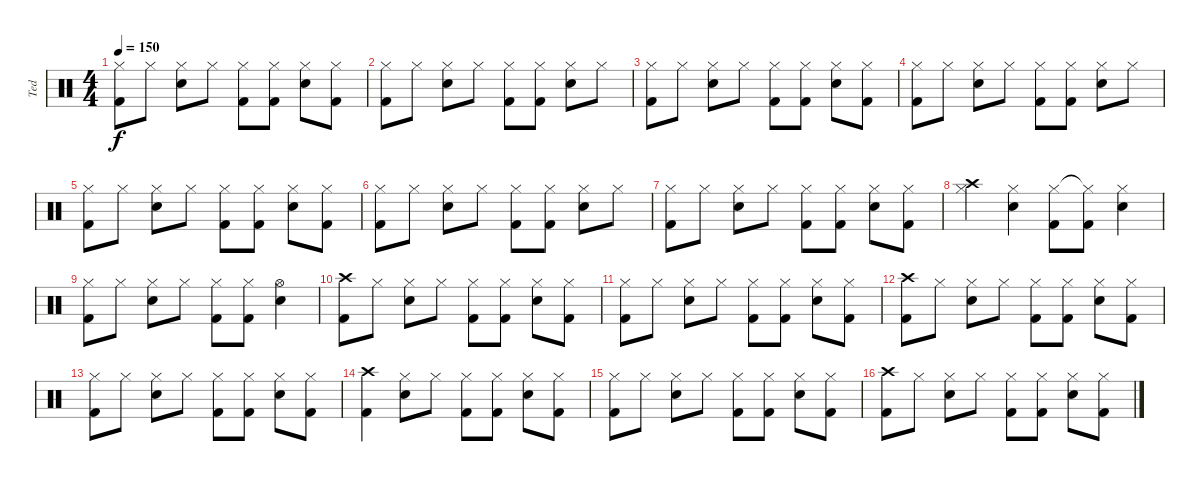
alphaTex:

\track ("Ted" "Ted") {instrument percussion}
\staff {score}
\articulation defaults
\ts (4 4)
\tempo 150
\clef neutral
\ks c
("Hi-Hat (closed)" "Kick (hit) 2").8{dy f} "Hi-Hat (closed)".8 ("Hi-Hat (closed)" "Electric Snare (hit)").8 "Hi-Hat (closed)".8 ("Hi-Hat (closed)" "Kick (hit) 2").8 ("Hi-Hat (closed)" "Kick (hit) 2").8 ("Hi-Hat (closed)" "Electric Snare (hit)").8 ("Hi-Hat (closed)" "Kick (hit) 2").8 |
("Hi-Hat (closed)" "Kick (hit) 2").8 "Hi-Hat (closed)".8 ("Hi-Hat (closed)" "Electric Snare (hit)").8 "Hi-Hat (closed)".8 ("Hi-Hat (closed)" "Kick (hit) 2").8 ("Hi-Hat (closed)" "Kick (hit) 2").8 ("Hi-Hat (closed)" "Electric Snare (hit)").8 "Hi-Hat (closed)".8 |
("Hi-Hat (closed)" "Kick (hit) 2").8 "Hi-Hat (closed)".8 ("Hi-Hat (closed)" "Electric Snare (hit)").8 "Hi-Hat (closed)".8 ("Hi-Hat (closed)" "Kick (hit) 2").8 ("Hi-Hat (closed)" "Kick (hit) 2").8 ("Hi-Hat (closed)" "Electric Snare (hit)").8 ("Hi-Hat (closed)" "Kick (hit) 2").8 |
("Hi-Hat (closed)" "Kick (hit) 2").8 "Hi-Hat (closed)".8 ("Hi-Hat (closed)" "Electric Snare (hit)").8 "Hi-Hat (closed)".8 ("Hi-Hat (closed)" "Kick (hit) 2").8 ("Hi-Hat (closed)" "Kick (hit) 2").8 ("Hi-Hat (closed)" "Electric Snare (hit)").8 "Hi-Hat (closed)".8 |
("Hi-Hat (closed)" "Kick (hit) 2").8 "Hi-Hat (closed)".8 ("Hi-Hat (closed)" "Electric Snare (hit)").8 "Hi-Hat (closed)".8 ("Hi-Hat (closed)" "Kick (hit) 2").8 ("Hi-Hat (closed)" "Kick (hit) 2").8 ("Hi-Hat (closed)" "Electric Snare (hit)").8 ("Hi-Hat (closed)" "Kick (hit) 2").8 |
("Hi-Hat (closed)" "Kick (hit) 2").8 "Hi-Hat (closed)".8 ("Hi-Hat (closed)" "Electric Snare (hit)").8 "Hi-Hat (closed)".8 ("Hi-Hat (closed)" "Kick (hit) 2").8 ("Hi-Hat (closed)" "Kick (hit) 2").8 ("Hi-Hat (closed)" "Electric Snare (hit)").8 "Hi-Hat (closed)".8 |
("Hi-Hat (closed)" "Kick (hit) 2").8 "Hi-Hat (closed)".8 ("Hi-Hat (closed)" "Electric Snare (hit)").8 "Hi-Hat (closed)".8 ("Hi-Hat (closed)" "Kick (hit) 2").8 ("Hi-Hat (closed)" "Kick (hit) 2").8 ("Hi-Hat (closed)" "Electric Snare (hit)").8 ("Hi-Hat (closed)" "Kick (hit) 2").8 |
("Crash high (hit)" "Hi-Hat (closed)").4 ("Hi-Hat (closed)" "Electric Snare (hit)").4 ("Hi-Hat (closed)" "Kick (hit) 2").8 ("Hi-Hat (closed)"{t} "Kick (hit) 2").8 ("Hi-Hat (closed)" "Electric Snare (hit)").4 |
("Hi-Hat (closed)" "Kick (hit) 2").8 "Hi-Hat (closed)".8 ("Hi-Hat (closed)" "Electric Snare (hit)").8 "Hi-Hat (closed)".8 ("Hi-Hat (closed)" "Kick (hit) 2").8 ("Hi-Hat (closed)" "Kick (hit) 2").8 ("Hi-Hat (open)" "Electric Snare (hit)").4 |
("Crash high (hit)" "Kick (hit) 2").8 "Hi-Hat (closed)".8 ("Hi-Hat (closed)" "Electric Snare (hit)").8 "Hi-Hat (closed)".8 ("Hi-Hat (closed)" "Kick (hit) 2").8 ("Hi-Hat (closed)" "Kick (hit) 2").8 ("Hi-Hat (closed)" "Electric Snare (hit)").8 ("Hi-Hat (closed)" "Kick (hit) 2").8 |
("Hi-Hat (closed)" "Kick (hit) 2").8 "Hi-Hat (closed)".8 ("Hi-Hat (closed)" "Electric Snare (hit)").8 "Hi-Hat (closed)".8 ("Hi-Hat (closed)" "Kick (hit) 2").8 ("Hi-Hat (closed)" "Kick (hit) 2").8 ("Hi-Hat (closed)" "Electric Snare (hit)").8 ("Hi-Hat (closed)" "Kick (hit) 2").8 |
("Crash high (hit)" "Kick (hit) 2").8 "Hi-Hat (closed)".8 ("Hi-Hat (closed)" "Electric Snare (hit)").8 "Hi-Hat (closed)".8 ("Hi-Hat (closed)" "Kick (hit) 2").8 ("Hi-Hat (closed)" "Kick (hit) 2").8 ("Hi-Hat (closed)" "Electric Snare (hit)").8 ("Hi-Hat (closed)" "Kick (hit) 2").8 |
("Hi-Hat (closed)" "Kick (hit) 2").8 "Hi-Hat (closed)".8 ("Hi-Hat (closed)" "Electric Snare (hit)").8 "Hi-Hat (closed)".8 ("Hi-Hat (closed)" "Kick (hit) 2").8 ("Hi-Hat (closed)" "Kick (hit) 2").8 ("Hi-Hat (closed)" "Electric Snare (hit)").8 ("Hi-Hat (closed)" "Kick (hit) 2").8 |
("Crash high (hit)" "Kick (hit) 2").4 ("Hi-Hat (closed)" "Electric Snare (hit)").8 "Hi-Hat (closed)".8 ("Hi-Hat (closed)" "Kick (hit) 2").8 ("Hi-Hat (closed)" "Kick (hit) 2").8 ("Hi-Hat (closed)" "Electric Snare (hit)").8 ("Hi-Hat (closed)" "Kick (hit) 2").8 |
("Hi-Hat (closed)" "Kick (hit) 2").8 "Hi-Hat (closed)".8 ("Hi-Hat (closed)" "Electric Snare (hit)").8 "Hi-Hat (closed)".8 ("Hi-Hat (closed)" "Kick (hit) 2").8 ("Hi-Hat (closed)" "Kick (hit) 2").8 ("Hi-Hat (closed)" "Electric Snare (hit)").8 ("Hi-Hat (closed)" "Kick (hit) 2").8 |
("Crash high (hit)" "Kick (hit) 2").8 "Hi-Hat (closed)".8 ("Hi-Hat (closed)" "Electric Snare (hit)").8 "Hi-Hat (closed)".8 ("Hi-Hat (closed)" "Kick (hit) 2").8 ("Hi-Hat (closed)" "Kick (hit) 2").8 ("Hi-Hat (closed)" "Electric Snare (hit)").8 ("Hi-Hat (closed)" "Kick (hit) 2").8
